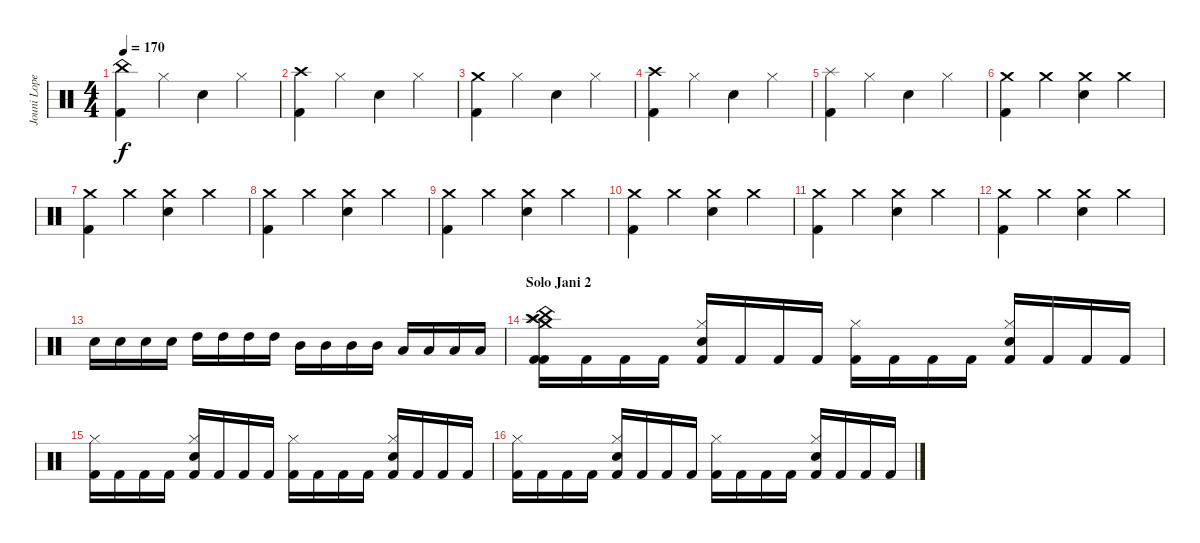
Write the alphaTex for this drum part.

\track ("Jouni Lopez (Bateria) 17 años" "Jouni Lope") {instrument percussion}
\staff {score}
\articulation defaults
\ts (4 4)
\tempo 170
\clef neutral
\ks c
("Kick (hit) 2" "China (hit)").4{dy f} "Hi-Hat (closed)".4 "Snare (hit) 2".4 "Hi-Hat (closed)".4 |
("Kick (hit) 2" "Crash high (hit)").4 "Hi-Hat (closed)".4 "Snare (hit) 2".4 "Hi-Hat (closed)".4 |
("Kick (hit) 2" "Crash medium (hit)").4 "Hi-Hat (closed)".4 "Snare (hit) 2".4 "Hi-Hat (closed)".4 |
("Kick (hit) 2" "Crash high (hit)").4 "Hi-Hat (closed)".4 "Snare (hit) 2".4 "Hi-Hat (closed)".4 |
("Kick (hit) 2" "Splash (hit)").4 "Hi-Hat (closed)".4 "Snare (hit) 2".4 "Hi-Hat (closed)".4 |
("Crash medium (hit)" "Kick (hit) 2").4 "Crash medium (hit)".4 ("Crash medium (hit)" "Snare (hit) 2").4 "Crash medium (hit)".4 |
("Crash medium (hit)" "Kick (hit) 2").4 "Crash medium (hit)".4 ("Crash medium (hit)" "Snare (hit) 2").4 "Crash medium (hit)".4 |
("Crash medium (hit)" "Kick (hit) 2").4 "Crash medium (hit)".4 ("Crash medium (hit)" "Snare (hit) 2").4 "Crash medium (hit)".4 |
("Crash medium (hit)" "Kick (hit) 2").4 "Crash medium (hit)".4 ("Crash medium (hit)" "Snare (hit) 2").4 "Crash medium (hit)".4 |
("Crash medium (hit)" "Kick (hit) 2").4 "Crash medium (hit)".4 ("Crash medium (hit)" "Snare (hit) 2").4 "Crash medium (hit)".4 |
("Crash medium (hit)" "Kick (hit) 2").4 "Crash medium (hit)".4 ("Crash medium (hit)" "Snare (hit) 2").4 "Crash medium (hit)".4 |
("Crash medium (hit)" "Kick (hit) 2").4 "Crash medium (hit)".4 ("Crash medium (hit)" "Snare (hit) 2").4 "Crash medium (hit)".4 |
"Snare (hit) 2".16 "Snare (hit) 2".16 "Snare (hit) 2".16 "Snare (hit) 2".16 "High Tom (hit)".16 "High Tom (hit)".16 "High Tom (hit)".16 "High Tom (hit)".16 "Mid Tom (hit)".16 "Mid Tom (hit)".16 "Mid Tom (hit)".16 "Mid Tom (hit)".16 "Low Tom (hit)".16 "Low Tom (hit)".16 "Low Tom (hit)".16 "Low Tom (hit)".16 |
\section ("" "Solo Jani 2")
("Kick (hit) 2" "Kick (hit) 2" "Crash medium (hit)" "Crash high (hit)" "Splash (hit)" "China (hit)").16 "Kick (hit) 2".16 "Kick (hit) 2".16 "Kick (hit) 2".16 ("Kick (hit) 2" "Snare (hit) 2" "Hi-Hat (closed)").16 "Kick (hit) 2".16 "Kick (hit) 2".16 "Kick (hit) 2".16 ("Kick (hit) 2" "Hi-Hat (closed)").16 "Kick (hit) 2".16 "Kick (hit) 2".16 "Kick (hit) 2".16 ("Kick (hit) 2" "Snare (hit) 2" "Hi-Hat (closed)").16 "Kick (hit) 2".16 "Kick (hit) 2".16 "Kick (hit) 2".16 |
("Kick (hit) 2" "Hi-Hat (closed)").16 "Kick (hit) 2".16 "Kick (hit) 2".16 "Kick (hit) 2".16 ("Kick (hit) 2" "Snare (hit) 2" "Hi-Hat (closed)").16 "Kick (hit) 2".16 "Kick (hit) 2".16 "Kick (hit) 2".16 ("Kick (hit) 2" "Hi-Hat (closed)").16 "Kick (hit) 2".16 "Kick (hit) 2".16 "Kick (hit) 2".16 ("Kick (hit) 2" "Snare (hit) 2" "Hi-Hat (closed)").16 "Kick (hit) 2".16 "Kick (hit) 2".16 "Kick (hit) 2".16 |
("Kick (hit) 2" "Hi-Hat (closed)").16 "Kick (hit) 2".16 "Kick (hit) 2".16 "Kick (hit) 2".16 ("Kick (hit) 2" "Snare (hit) 2" "Hi-Hat (closed)").16 "Kick (hit) 2".16 "Kick (hit) 2".16 "Kick (hit) 2".16 ("Kick (hit) 2" "Hi-Hat (closed)").16 "Kick (hit) 2".16 "Kick (hit) 2".16 "Kick (hit) 2".16 ("Kick (hit) 2" "Snare (hit) 2" "Hi-Hat (closed)").16 "Kick (hit) 2".16 "Kick (hit) 2".16 "Kick (hit) 2".16
